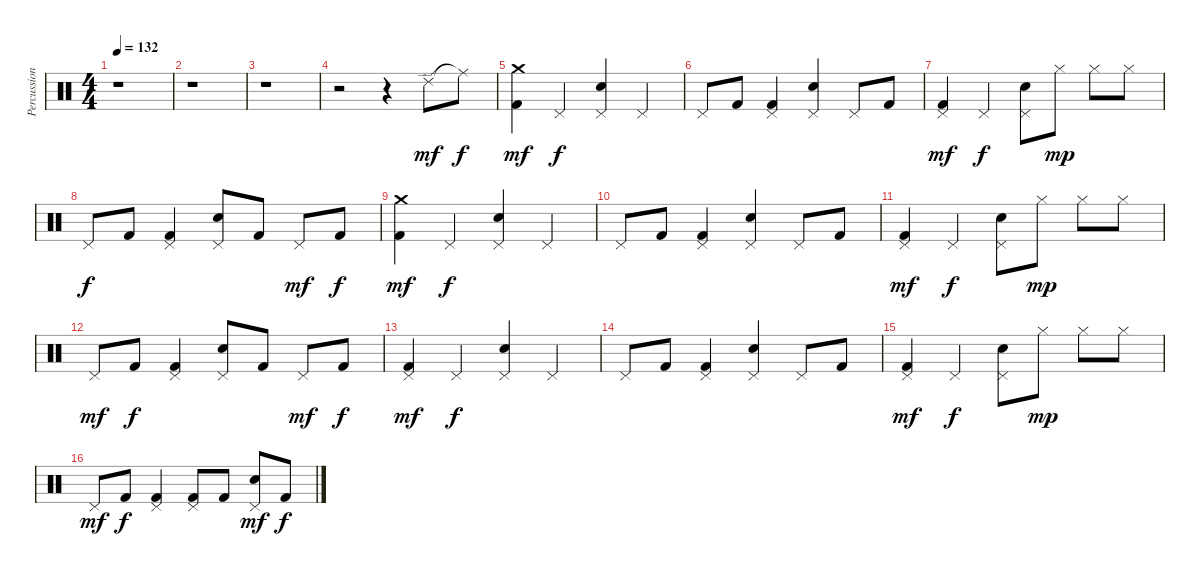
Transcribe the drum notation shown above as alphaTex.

\track ("Percussion" "Percussion") {instrument percussion}
\staff {score}
\articulation defaults
\ts (4 4)
\tempo 132
\clef neutral
\ks c
r.1{dy mf} |
r.1 |
r.1 |
r.2 r.4 "Ride (edge) 2".8 "Ride (middle)"{t}.8{dy f} |
("Crash medium (hit)" "Kick (hit) 2").4{dy mf} "Pedal Hi-Hat (hit)".4{dy f} ("Pedal Hi-Hat (hit)" "Electric Snare (hit)").4 "Pedal Hi-Hat (hit)".4 |
"Pedal Hi-Hat (hit)".8 "Kick (hit) 2".8 ("Pedal Hi-Hat (hit)" "Kick (hit) 2").4 ("Pedal Hi-Hat (hit)" "Electric Snare (hit)").4 "Pedal Hi-Hat (hit)".8 "Kick (hit) 2".8 |
("Pedal Hi-Hat (hit)" "Kick (hit) 2").4{dy mf} "Pedal Hi-Hat (hit)".4{dy f} ("Pedal Hi-Hat (hit)" "Electric Snare (hit)").8 "Hi-Hat (closed)".8{dy mp} "Hi-Hat (closed)".8 "Hi-Hat (closed)".8 |
"Pedal Hi-Hat (hit)".8{dy f} "Kick (hit) 2".8 ("Pedal Hi-Hat (hit)" "Kick (hit) 2").4 ("Pedal Hi-Hat (hit)" "Electric Snare (hit)").8 "Kick (hit) 2".8 "Pedal Hi-Hat (hit)".8{dy mf} "Kick (hit) 2".8{dy f} |
("Crash medium (hit)" "Kick (hit) 2").4{dy mf} "Pedal Hi-Hat (hit)".4{dy f} ("Pedal Hi-Hat (hit)" "Electric Snare (hit)").4 "Pedal Hi-Hat (hit)".4 |
"Pedal Hi-Hat (hit)".8 "Kick (hit) 2".8 ("Pedal Hi-Hat (hit)" "Kick (hit) 2").4 ("Pedal Hi-Hat (hit)" "Electric Snare (hit)").4 "Pedal Hi-Hat (hit)".8 "Kick (hit) 2".8 |
("Pedal Hi-Hat (hit)" "Kick (hit) 2").4{dy mf} "Pedal Hi-Hat (hit)".4{dy f} ("Pedal Hi-Hat (hit)" "Electric Snare (hit)").8 "Hi-Hat (closed)".8{dy mp} "Hi-Hat (closed)".8 "Hi-Hat (closed)".8 |
"Pedal Hi-Hat (hit)".8{dy mf} "Kick (hit) 2".8{dy f} ("Pedal Hi-Hat (hit)" "Kick (hit) 2").4 ("Pedal Hi-Hat (hit)" "Electric Snare (hit)").8 "Kick (hit) 2".8 "Pedal Hi-Hat (hit)".8{dy mf} "Kick (hit) 2".8{dy f} |
("Pedal Hi-Hat (hit)" "Kick (hit) 2").4{dy mf} "Pedal Hi-Hat (hit)".4{dy f} ("Pedal Hi-Hat (hit)" "Electric Snare (hit)").4 "Pedal Hi-Hat (hit)".4 |
"Pedal Hi-Hat (hit)".8 "Kick (hit) 2".8 ("Pedal Hi-Hat (hit)" "Kick (hit) 2").4 ("Pedal Hi-Hat (hit)" "Electric Snare (hit)").4 "Pedal Hi-Hat (hit)".8 "Kick (hit) 2".8 |
("Pedal Hi-Hat (hit)" "Kick (hit) 2").4{dy mf} "Pedal Hi-Hat (hit)".4{dy f} ("Pedal Hi-Hat (hit)" "Electric Snare (hit)").8 "Hi-Hat (closed)".8{dy mp} "Hi-Hat (closed)".8 "Hi-Hat (closed)".8 |
"Pedal Hi-Hat (hit)".8{dy mf} "Kick (hit) 2".8{dy f} ("Pedal Hi-Hat (hit)" "Kick (hit) 2").4 ("Pedal Hi-Hat (hit)" "Kick (hit) 2").8 "Kick (hit) 2".8 ("Pedal Hi-Hat (hit)" "Electric Snare (hit)").8{dy mf} "Kick (hit) 2".8{dy f}
